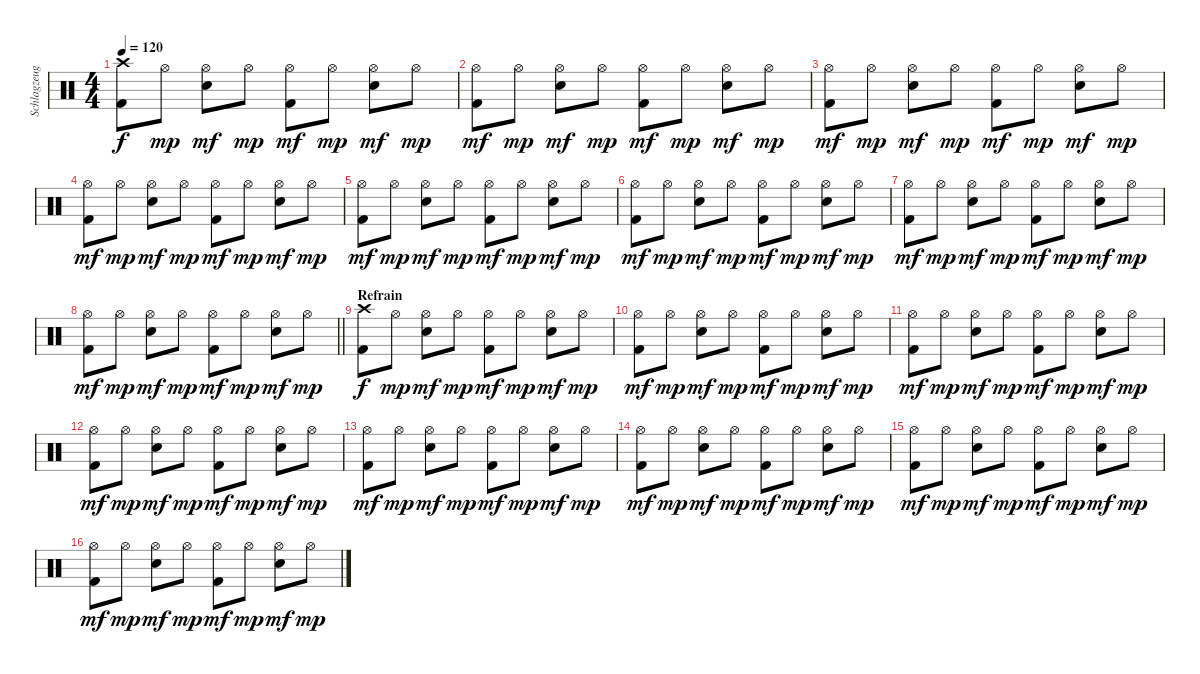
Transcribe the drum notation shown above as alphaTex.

\track ("Schlagzeug" "Schlagzeug") {instrument percussion}
\staff {score}
\articulation defaults
\ts (4 4)
\tempo 120
\clef neutral
\ks c
("Crash high (hit)" "Kick (hit) 2").8{dy f} "Hi-Hat (open)".8{dy mp} ("Hi-Hat (open)" "Electric Snare (hit)").8{dy mf} "Hi-Hat (open)".8{dy mp} ("Hi-Hat (open)" "Kick (hit) 2").8{dy mf} "Hi-Hat (open)".8{dy mp} ("Hi-Hat (open)" "Electric Snare (hit)").8{dy mf} "Hi-Hat (open)".8{dy mp} |
("Hi-Hat (open)" "Kick (hit) 2").8{dy mf} "Hi-Hat (open)".8{dy mp} ("Hi-Hat (open)" "Electric Snare (hit)").8{dy mf} "Hi-Hat (open)".8{dy mp} ("Hi-Hat (open)" "Kick (hit) 2").8{dy mf} "Hi-Hat (open)".8{dy mp} ("Hi-Hat (open)" "Electric Snare (hit)").8{dy mf} "Hi-Hat (open)".8{dy mp} |
("Hi-Hat (open)" "Kick (hit) 2").8{dy mf} "Hi-Hat (open)".8{dy mp} ("Hi-Hat (open)" "Electric Snare (hit)").8{dy mf} "Hi-Hat (open)".8{dy mp} ("Hi-Hat (open)" "Kick (hit) 2").8{dy mf} "Hi-Hat (open)".8{dy mp} ("Hi-Hat (open)" "Electric Snare (hit)").8{dy mf} "Hi-Hat (open)".8{dy mp} |
("Hi-Hat (open)" "Kick (hit) 2").8{dy mf} "Hi-Hat (open)".8{dy mp} ("Hi-Hat (open)" "Electric Snare (hit)").8{dy mf} "Hi-Hat (open)".8{dy mp} ("Hi-Hat (open)" "Kick (hit) 2").8{dy mf} "Hi-Hat (open)".8{dy mp} ("Hi-Hat (open)" "Electric Snare (hit)").8{dy mf} "Hi-Hat (open)".8{dy mp} |
("Hi-Hat (open)" "Kick (hit) 2").8{dy mf} "Hi-Hat (open)".8{dy mp} ("Hi-Hat (open)" "Electric Snare (hit)").8{dy mf} "Hi-Hat (open)".8{dy mp} ("Hi-Hat (open)" "Kick (hit) 2").8{dy mf} "Hi-Hat (open)".8{dy mp} ("Hi-Hat (open)" "Electric Snare (hit)").8{dy mf} "Hi-Hat (open)".8{dy mp} |
("Hi-Hat (open)" "Kick (hit) 2").8{dy mf} "Hi-Hat (open)".8{dy mp} ("Hi-Hat (open)" "Electric Snare (hit)").8{dy mf} "Hi-Hat (open)".8{dy mp} ("Hi-Hat (open)" "Kick (hit) 2").8{dy mf} "Hi-Hat (open)".8{dy mp} ("Hi-Hat (open)" "Electric Snare (hit)").8{dy mf} "Hi-Hat (open)".8{dy mp} |
("Hi-Hat (open)" "Kick (hit) 2").8{dy mf} "Hi-Hat (open)".8{dy mp} ("Hi-Hat (open)" "Electric Snare (hit)").8{dy mf} "Hi-Hat (open)".8{dy mp} ("Hi-Hat (open)" "Kick (hit) 2").8{dy mf} "Hi-Hat (open)".8{dy mp} ("Hi-Hat (open)" "Electric Snare (hit)").8{dy mf} "Hi-Hat (open)".8{dy mp} |
\barLineRight lightlight
("Hi-Hat (open)" "Kick (hit) 2").8{dy mf} "Hi-Hat (open)".8{dy mp} ("Hi-Hat (open)" "Electric Snare (hit)").8{dy mf} "Hi-Hat (open)".8{dy mp} ("Hi-Hat (open)" "Kick (hit) 2").8{dy mf} "Hi-Hat (open)".8{dy mp} ("Hi-Hat (open)" "Electric Snare (hit)").8{dy mf} "Hi-Hat (open)".8{dy mp} |
\section ("" "Refrain")
("Crash high (hit)" "Kick (hit) 2").8{dy f} "Hi-Hat (open)".8{dy mp} ("Hi-Hat (open)" "Electric Snare (hit)").8{dy mf} "Hi-Hat (open)".8{dy mp} ("Hi-Hat (open)" "Kick (hit) 2").8{dy mf} "Hi-Hat (open)".8{dy mp} ("Hi-Hat (open)" "Electric Snare (hit)").8{dy mf} "Hi-Hat (open)".8{dy mp} |
("Hi-Hat (open)" "Kick (hit) 2").8{dy mf} "Hi-Hat (open)".8{dy mp} ("Hi-Hat (open)" "Electric Snare (hit)").8{dy mf} "Hi-Hat (open)".8{dy mp} ("Hi-Hat (open)" "Kick (hit) 2").8{dy mf} "Hi-Hat (open)".8{dy mp} ("Hi-Hat (open)" "Electric Snare (hit)").8{dy mf} "Hi-Hat (open)".8{dy mp} |
("Hi-Hat (open)" "Kick (hit) 2").8{dy mf} "Hi-Hat (open)".8{dy mp} ("Hi-Hat (open)" "Electric Snare (hit)").8{dy mf} "Hi-Hat (open)".8{dy mp} ("Hi-Hat (open)" "Kick (hit) 2").8{dy mf} "Hi-Hat (open)".8{dy mp} ("Hi-Hat (open)" "Electric Snare (hit)").8{dy mf} "Hi-Hat (open)".8{dy mp} |
("Hi-Hat (open)" "Kick (hit) 2").8{dy mf} "Hi-Hat (open)".8{dy mp} ("Hi-Hat (open)" "Electric Snare (hit)").8{dy mf} "Hi-Hat (open)".8{dy mp} ("Hi-Hat (open)" "Kick (hit) 2").8{dy mf} "Hi-Hat (open)".8{dy mp} ("Hi-Hat (open)" "Electric Snare (hit)").8{dy mf} "Hi-Hat (open)".8{dy mp} |
("Hi-Hat (open)" "Kick (hit) 2").8{dy mf} "Hi-Hat (open)".8{dy mp} ("Hi-Hat (open)" "Electric Snare (hit)").8{dy mf} "Hi-Hat (open)".8{dy mp} ("Hi-Hat (open)" "Kick (hit) 2").8{dy mf} "Hi-Hat (open)".8{dy mp} ("Hi-Hat (open)" "Electric Snare (hit)").8{dy mf} "Hi-Hat (open)".8{dy mp} |
("Hi-Hat (open)" "Kick (hit) 2").8{dy mf} "Hi-Hat (open)".8{dy mp} ("Hi-Hat (open)" "Electric Snare (hit)").8{dy mf} "Hi-Hat (open)".8{dy mp} ("Hi-Hat (open)" "Kick (hit) 2").8{dy mf} "Hi-Hat (open)".8{dy mp} ("Hi-Hat (open)" "Electric Snare (hit)").8{dy mf} "Hi-Hat (open)".8{dy mp} |
("Hi-Hat (open)" "Kick (hit) 2").8{dy mf} "Hi-Hat (open)".8{dy mp} ("Hi-Hat (open)" "Electric Snare (hit)").8{dy mf} "Hi-Hat (open)".8{dy mp} ("Hi-Hat (open)" "Kick (hit) 2").8{dy mf} "Hi-Hat (open)".8{dy mp} ("Hi-Hat (open)" "Electric Snare (hit)").8{dy mf} "Hi-Hat (open)".8{dy mp} |
("Hi-Hat (open)" "Kick (hit) 2").8{dy mf} "Hi-Hat (open)".8{dy mp} ("Hi-Hat (open)" "Electric Snare (hit)").8{dy mf} "Hi-Hat (open)".8{dy mp} ("Hi-Hat (open)" "Kick (hit) 2").8{dy mf} "Hi-Hat (open)".8{dy mp} ("Hi-Hat (open)" "Electric Snare (hit)").8{dy mf} "Hi-Hat (open)".8{dy mp}
